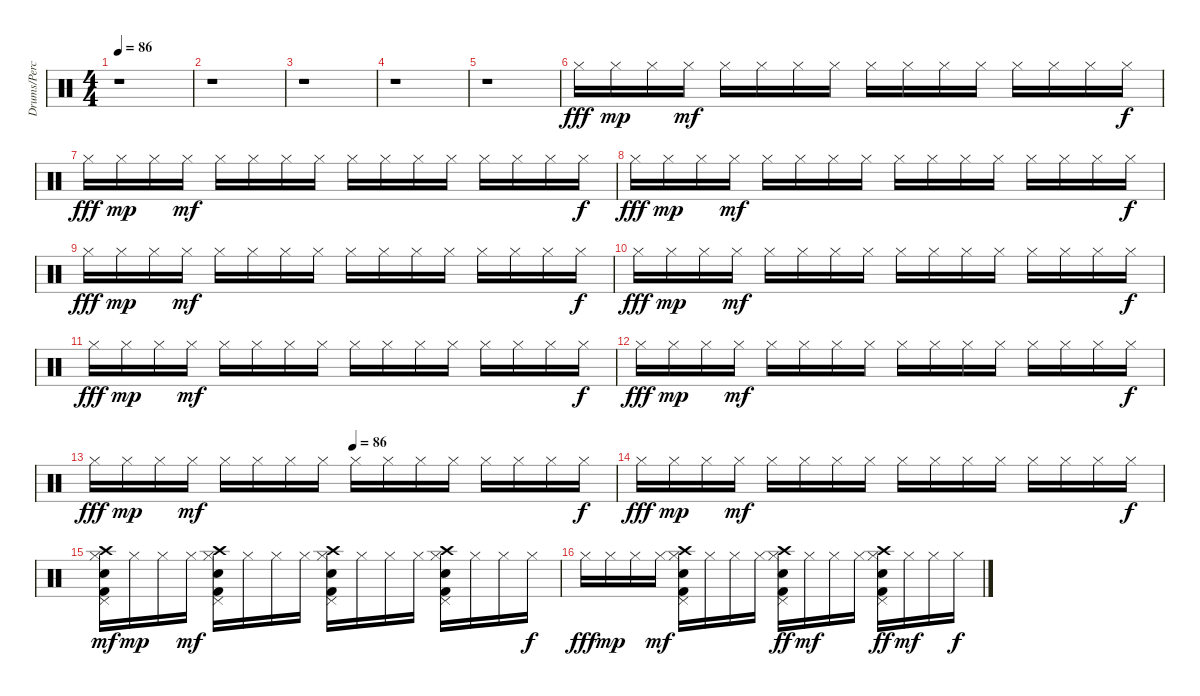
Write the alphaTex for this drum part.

\track ("Drums/Percussion" "Drums/Perc") {instrument percussion}
\staff {score}
\articulation defaults
\ts (4 4)
\tempo 86
\clef neutral
\ks c
r.1{dy fff} |
r.1 |
r.1 |
r.1 |
r.1 |
"Hi-Hat (closed)".16 "Hi-Hat (closed)".16{dy mp} "Hi-Hat (closed)".16 "Hi-Hat (closed)".16{dy mf} "Hi-Hat (closed)".16 "Hi-Hat (closed)".16 "Hi-Hat (closed)".16 "Hi-Hat (closed)".16 "Hi-Hat (closed)".16 "Hi-Hat (closed)".16 "Hi-Hat (closed)".16 "Hi-Hat (closed)".16 "Hi-Hat (closed)".16 "Hi-Hat (closed)".16 "Hi-Hat (closed)".16 "Hi-Hat (closed)".16{dy f} |
"Hi-Hat (closed)".16{dy fff} "Hi-Hat (closed)".16{dy mp} "Hi-Hat (closed)".16 "Hi-Hat (closed)".16{dy mf} "Hi-Hat (closed)".16 "Hi-Hat (closed)".16 "Hi-Hat (closed)".16 "Hi-Hat (closed)".16 "Hi-Hat (closed)".16 "Hi-Hat (closed)".16 "Hi-Hat (closed)".16 "Hi-Hat (closed)".16 "Hi-Hat (closed)".16 "Hi-Hat (closed)".16 "Hi-Hat (closed)".16 "Hi-Hat (closed)".16{dy f} |
"Hi-Hat (closed)".16{dy fff} "Hi-Hat (closed)".16{dy mp} "Hi-Hat (closed)".16 "Hi-Hat (closed)".16{dy mf} "Hi-Hat (closed)".16 "Hi-Hat (closed)".16 "Hi-Hat (closed)".16 "Hi-Hat (closed)".16 "Hi-Hat (closed)".16 "Hi-Hat (closed)".16 "Hi-Hat (closed)".16 "Hi-Hat (closed)".16 "Hi-Hat (closed)".16 "Hi-Hat (closed)".16 "Hi-Hat (closed)".16 "Hi-Hat (closed)".16{dy f} |
"Hi-Hat (closed)".16{dy fff} "Hi-Hat (closed)".16{dy mp} "Hi-Hat (closed)".16 "Hi-Hat (closed)".16{dy mf} "Hi-Hat (closed)".16 "Hi-Hat (closed)".16 "Hi-Hat (closed)".16 "Hi-Hat (closed)".16 "Hi-Hat (closed)".16 "Hi-Hat (closed)".16 "Hi-Hat (closed)".16 "Hi-Hat (closed)".16 "Hi-Hat (closed)".16 "Hi-Hat (closed)".16 "Hi-Hat (closed)".16 "Hi-Hat (closed)".16{dy f} |
"Hi-Hat (closed)".16{dy fff} "Hi-Hat (closed)".16{dy mp} "Hi-Hat (closed)".16 "Hi-Hat (closed)".16{dy mf} "Hi-Hat (closed)".16 "Hi-Hat (closed)".16 "Hi-Hat (closed)".16 "Hi-Hat (closed)".16 "Hi-Hat (closed)".16 "Hi-Hat (closed)".16 "Hi-Hat (closed)".16 "Hi-Hat (closed)".16 "Hi-Hat (closed)".16 "Hi-Hat (closed)".16 "Hi-Hat (closed)".16 "Hi-Hat (closed)".16{dy f} |
"Hi-Hat (closed)".16{dy fff} "Hi-Hat (closed)".16{dy mp} "Hi-Hat (closed)".16 "Hi-Hat (closed)".16{dy mf} "Hi-Hat (closed)".16 "Hi-Hat (closed)".16 "Hi-Hat (closed)".16 "Hi-Hat (closed)".16 "Hi-Hat (closed)".16 "Hi-Hat (closed)".16 "Hi-Hat (closed)".16 "Hi-Hat (closed)".16 "Hi-Hat (closed)".16 "Hi-Hat (closed)".16 "Hi-Hat (closed)".16 "Hi-Hat (closed)".16{dy f} |
"Hi-Hat (closed)".16{dy fff} "Hi-Hat (closed)".16{dy mp} "Hi-Hat (closed)".16 "Hi-Hat (closed)".16{dy mf} "Hi-Hat (closed)".16 "Hi-Hat (closed)".16 "Hi-Hat (closed)".16 "Hi-Hat (closed)".16 "Hi-Hat (closed)".16 "Hi-Hat (closed)".16 "Hi-Hat (closed)".16 "Hi-Hat (closed)".16 "Hi-Hat (closed)".16 "Hi-Hat (closed)".16 "Hi-Hat (closed)".16 "Hi-Hat (closed)".16{dy f} |
\tempo (86 0.496875)
"Hi-Hat (closed)".16{dy fff} "Hi-Hat (closed)".16{dy mp} "Hi-Hat (closed)".16 "Hi-Hat (closed)".16{dy mf} "Hi-Hat (closed)".16 "Hi-Hat (closed)".16 "Hi-Hat (closed)".16 "Hi-Hat (closed)".16 "Hi-Hat (closed)".16 "Hi-Hat (closed)".16 "Hi-Hat (closed)".16 "Hi-Hat (closed)".16 "Hi-Hat (closed)".16 "Hi-Hat (closed)".16 "Hi-Hat (closed)".16 "Hi-Hat (closed)".16{dy f} |
"Hi-Hat (closed)".16{dy fff} "Hi-Hat (closed)".16{dy mp} "Hi-Hat (closed)".16 "Hi-Hat (closed)".16{dy mf} "Hi-Hat (closed)".16 "Hi-Hat (closed)".16 "Hi-Hat (closed)".16 "Hi-Hat (closed)".16 "Hi-Hat (closed)".16 "Hi-Hat (closed)".16 "Hi-Hat (closed)".16 "Hi-Hat (closed)".16 "Hi-Hat (closed)".16 "Hi-Hat (closed)".16 "Hi-Hat (closed)".16 "Hi-Hat (closed)".16{dy f} |
("Hi-Hat (closed)" "Crash high (hit)" "Pedal Hi-Hat (hit)" "Kick (hit) 2" "Electric Snare (hit)").16{dy mf} "Hi-Hat (closed)".16{dy mp} "Hi-Hat (closed)".16 "Hi-Hat (closed)".16{dy mf} ("Hi-Hat (closed)" "Crash high (hit)" "Pedal Hi-Hat (hit)" "Kick (hit) 2" "Electric Snare (hit)").16 "Hi-Hat (closed)".16 "Hi-Hat (closed)".16 "Hi-Hat (closed)".16 ("Hi-Hat (closed)" "Crash high (hit)" "Pedal Hi-Hat (hit)" "Kick (hit) 2" "Electric Snare (hit)").16 "Hi-Hat (closed)".16 "Hi-Hat (closed)".16 "Hi-Hat (closed)".16 ("Hi-Hat (closed)" "Pedal Hi-Hat (hit)" "Crash high (hit)" "Kick (hit) 2" "Electric Snare (hit)").16 "Hi-Hat (closed)".16 "Hi-Hat (closed)".16 "Hi-Hat (closed)".16{dy f} |
"Hi-Hat (closed)".16{dy fff} "Hi-Hat (closed)".16{dy mp} "Hi-Hat (closed)".16 "Hi-Hat (closed)".16{dy mf} ("Hi-Hat (closed)" "Crash high (hit)" "Pedal Hi-Hat (hit)" "Kick (hit) 2" "Electric Snare (hit)").16 "Hi-Hat (closed)".16 "Hi-Hat (closed)".16 "Hi-Hat (closed)".16 ("Hi-Hat (closed)" "Pedal Hi-Hat (hit)" "Kick (hit) 2" "Crash high (hit)" "Electric Snare (hit)").16{dy ff} "Hi-Hat (closed)".16{dy mf} "Hi-Hat (closed)".16 "Hi-Hat (closed)".16 ("Hi-Hat (closed)" "Crash high (hit)" "Pedal Hi-Hat (hit)" "Kick (hit) 2" "Electric Snare (hit)").16{dy ff} "Hi-Hat (closed)".16{dy mf} "Hi-Hat (closed)".16 "Hi-Hat (closed)".16{dy f}
